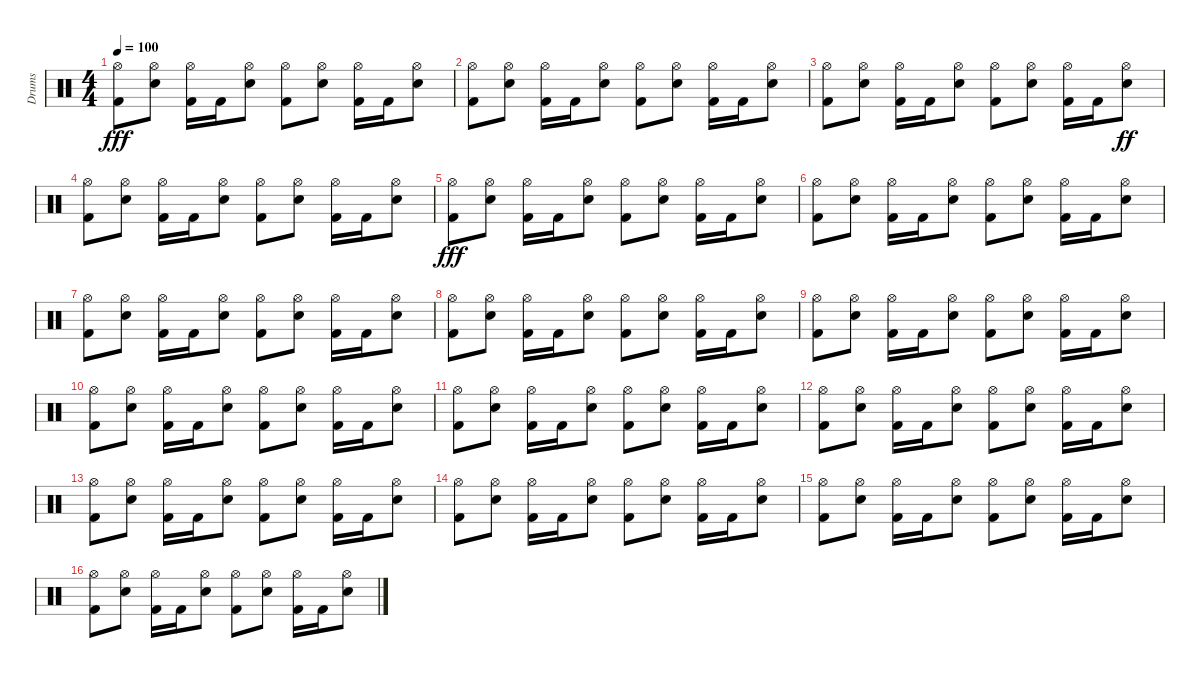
\track ("Drums" "Drums") {instrument percussion}
\staff {score}
\articulation defaults
\ts (4 4)
\tempo 100
\clef neutral
\ks c
("Kick (hit) 2" "Hi-Hat (open)").8{dy fff} ("Hi-Hat (open)" "Electric Snare (hit)").8 ("Hi-Hat (open)" "Kick (hit) 2").16 "Kick (hit) 2".16 ("Hi-Hat (open)" "Electric Snare (hit)").8 ("Kick (hit) 2" "Hi-Hat (open)").8 ("Hi-Hat (open)" "Electric Snare (hit)").8 ("Kick (hit) 2" "Hi-Hat (open)").16 "Kick (hit) 2".16 ("Hi-Hat (open)" "Electric Snare (hit)").8 |
("Kick (hit) 2" "Hi-Hat (open)").8 ("Hi-Hat (open)" "Electric Snare (hit)").8 ("Hi-Hat (open)" "Kick (hit) 2").16 "Kick (hit) 2".16 ("Hi-Hat (open)" "Electric Snare (hit)").8 ("Kick (hit) 2" "Hi-Hat (open)").8 ("Hi-Hat (open)" "Electric Snare (hit)").8 ("Hi-Hat (open)" "Kick (hit) 2").16 "Kick (hit) 2".16 ("Hi-Hat (open)" "Electric Snare (hit)").8 |
("Kick (hit) 2" "Hi-Hat (open)").8 ("Hi-Hat (open)" "Electric Snare (hit)").8 ("Kick (hit) 2" "Hi-Hat (open)").16 "Kick (hit) 2".16 ("Hi-Hat (open)" "Electric Snare (hit)").8 ("Kick (hit) 2" "Hi-Hat (open)").8 ("Hi-Hat (open)" "Electric Snare (hit)").8 ("Hi-Hat (open)" "Kick (hit) 2").16 "Kick (hit) 2".16 ("Hi-Hat (open)" "Electric Snare (hit)").8{dy ff} |
("Kick (hit) 2" "Hi-Hat (open)").8 ("Hi-Hat (open)" "Electric Snare (hit)").8 ("Hi-Hat (open)" "Kick (hit) 2").16 "Kick (hit) 2".16 ("Hi-Hat (open)" "Electric Snare (hit)").8 ("Kick (hit) 2" "Hi-Hat (open)").8 ("Hi-Hat (open)" "Electric Snare (hit)").8 ("Kick (hit) 2" "Hi-Hat (open)").16 "Kick (hit) 2".16 ("Hi-Hat (open)" "Electric Snare (hit)").8 |
("Kick (hit) 2" "Hi-Hat (open)").8{dy fff} ("Hi-Hat (open)" "Electric Snare (hit)").8 ("Hi-Hat (open)" "Kick (hit) 2").16 "Kick (hit) 2".16 ("Hi-Hat (open)" "Electric Snare (hit)").8 ("Kick (hit) 2" "Hi-Hat (open)").8 ("Hi-Hat (open)" "Electric Snare (hit)").8 ("Kick (hit) 2" "Hi-Hat (open)").16 "Kick (hit) 2".16 ("Hi-Hat (open)" "Electric Snare (hit)").8 |
("Kick (hit) 2" "Hi-Hat (open)").8 ("Hi-Hat (open)" "Electric Snare (hit)").8 ("Hi-Hat (open)" "Kick (hit) 2").16 "Kick (hit) 2".16 ("Hi-Hat (open)" "Electric Snare (hit)").8 ("Kick (hit) 2" "Hi-Hat (open)").8 ("Hi-Hat (open)" "Electric Snare (hit)").8 ("Kick (hit) 2" "Hi-Hat (open)").16 "Kick (hit) 2".16 ("Hi-Hat (open)" "Electric Snare (hit)").8 |
("Kick (hit) 2" "Hi-Hat (open)").8 ("Hi-Hat (open)" "Electric Snare (hit)").8 ("Hi-Hat (open)" "Kick (hit) 2").16 "Kick (hit) 2".16 ("Hi-Hat (open)" "Electric Snare (hit)").8 ("Kick (hit) 2" "Hi-Hat (open)").8 ("Hi-Hat (open)" "Electric Snare (hit)").8 ("Hi-Hat (open)" "Kick (hit) 2").16 "Kick (hit) 2".16 ("Hi-Hat (open)" "Electric Snare (hit)").8 |
("Kick (hit) 2" "Hi-Hat (open)").8 ("Hi-Hat (open)" "Electric Snare (hit)").8 ("Kick (hit) 2" "Hi-Hat (open)").16 "Kick (hit) 2".16 ("Hi-Hat (open)" "Electric Snare (hit)").8 ("Kick (hit) 2" "Hi-Hat (open)").8 ("Hi-Hat (open)" "Electric Snare (hit)").8 ("Hi-Hat (open)" "Kick (hit) 2").16 "Kick (hit) 2".16 ("Hi-Hat (open)" "Electric Snare (hit)").8 |
("Kick (hit) 2" "Hi-Hat (open)").8 ("Hi-Hat (open)" "Electric Snare (hit)").8 ("Kick (hit) 2" "Hi-Hat (open)").16 "Kick (hit) 2".16 ("Hi-Hat (open)" "Electric Snare (hit)").8 ("Kick (hit) 2" "Hi-Hat (open)").8 ("Hi-Hat (open)" "Electric Snare (hit)").8 ("Hi-Hat (open)" "Kick (hit) 2").16 "Kick (hit) 2".16 ("Hi-Hat (open)" "Electric Snare (hit)").8 |
("Kick (hit) 2" "Hi-Hat (open)").8 ("Hi-Hat (open)" "Electric Snare (hit)").8 ("Hi-Hat (open)" "Kick (hit) 2").16 "Kick (hit) 2".16 ("Hi-Hat (open)" "Electric Snare (hit)").8 ("Kick (hit) 2" "Hi-Hat (open)").8 ("Hi-Hat (open)" "Electric Snare (hit)").8 ("Kick (hit) 2" "Hi-Hat (open)").16 "Kick (hit) 2".16 ("Hi-Hat (open)" "Electric Snare (hit)").8 |
("Kick (hit) 2" "Hi-Hat (open)").8 ("Hi-Hat (open)" "Electric Snare (hit)").8 ("Hi-Hat (open)" "Kick (hit) 2").16 "Kick (hit) 2".16 ("Hi-Hat (open)" "Electric Snare (hit)").8 ("Kick (hit) 2" "Hi-Hat (open)").8 ("Hi-Hat (open)" "Electric Snare (hit)").8 ("Kick (hit) 2" "Hi-Hat (open)").16 "Kick (hit) 2".16 ("Hi-Hat (open)" "Electric Snare (hit)").8 |
("Kick (hit) 2" "Hi-Hat (open)").8 ("Hi-Hat (open)" "Electric Snare (hit)").8 ("Hi-Hat (open)" "Kick (hit) 2").16 "Kick (hit) 2".16 ("Hi-Hat (open)" "Electric Snare (hit)").8 ("Kick (hit) 2" "Hi-Hat (open)").8 ("Hi-Hat (open)" "Electric Snare (hit)").8 ("Hi-Hat (open)" "Kick (hit) 2").16 "Kick (hit) 2".16 ("Hi-Hat (open)" "Electric Snare (hit)").8 |
("Kick (hit) 2" "Hi-Hat (open)").8 ("Hi-Hat (open)" "Electric Snare (hit)").8 ("Kick (hit) 2" "Hi-Hat (open)").16 "Kick (hit) 2".16 ("Hi-Hat (open)" "Electric Snare (hit)").8 ("Kick (hit) 2" "Hi-Hat (open)").8 ("Hi-Hat (open)" "Electric Snare (hit)").8 ("Hi-Hat (open)" "Kick (hit) 2").16 "Kick (hit) 2".16 ("Hi-Hat (open)" "Electric Snare (hit)").8 |
("Kick (hit) 2" "Hi-Hat (open)").8 ("Hi-Hat (open)" "Electric Snare (hit)").8 ("Kick (hit) 2" "Hi-Hat (open)").16 "Kick (hit) 2".16 ("Hi-Hat (open)" "Electric Snare (hit)").8 ("Kick (hit) 2" "Hi-Hat (open)").8 ("Hi-Hat (open)" "Electric Snare (hit)").8 ("Hi-Hat (open)" "Kick (hit) 2").16 "Kick (hit) 2".16 ("Hi-Hat (open)" "Electric Snare (hit)").8 |
("Kick (hit) 2" "Hi-Hat (open)").8 ("Hi-Hat (open)" "Electric Snare (hit)").8 ("Hi-Hat (open)" "Kick (hit) 2").16 "Kick (hit) 2".16 ("Hi-Hat (open)" "Electric Snare (hit)").8 ("Kick (hit) 2" "Hi-Hat (open)").8 ("Hi-Hat (open)" "Electric Snare (hit)").8 ("Kick (hit) 2" "Hi-Hat (open)").16 "Kick (hit) 2".16 ("Hi-Hat (open)" "Electric Snare (hit)").8 |
("Kick (hit) 2" "Hi-Hat (open)").8 ("Hi-Hat (open)" "Electric Snare (hit)").8 ("Hi-Hat (open)" "Kick (hit) 2").16 "Kick (hit) 2".16 ("Hi-Hat (open)" "Electric Snare (hit)").8 ("Kick (hit) 2" "Hi-Hat (open)").8 ("Hi-Hat (open)" "Electric Snare (hit)").8 ("Kick (hit) 2" "Hi-Hat (open)").16 "Kick (hit) 2".16 ("Hi-Hat (open)" "Electric Snare (hit)").8
